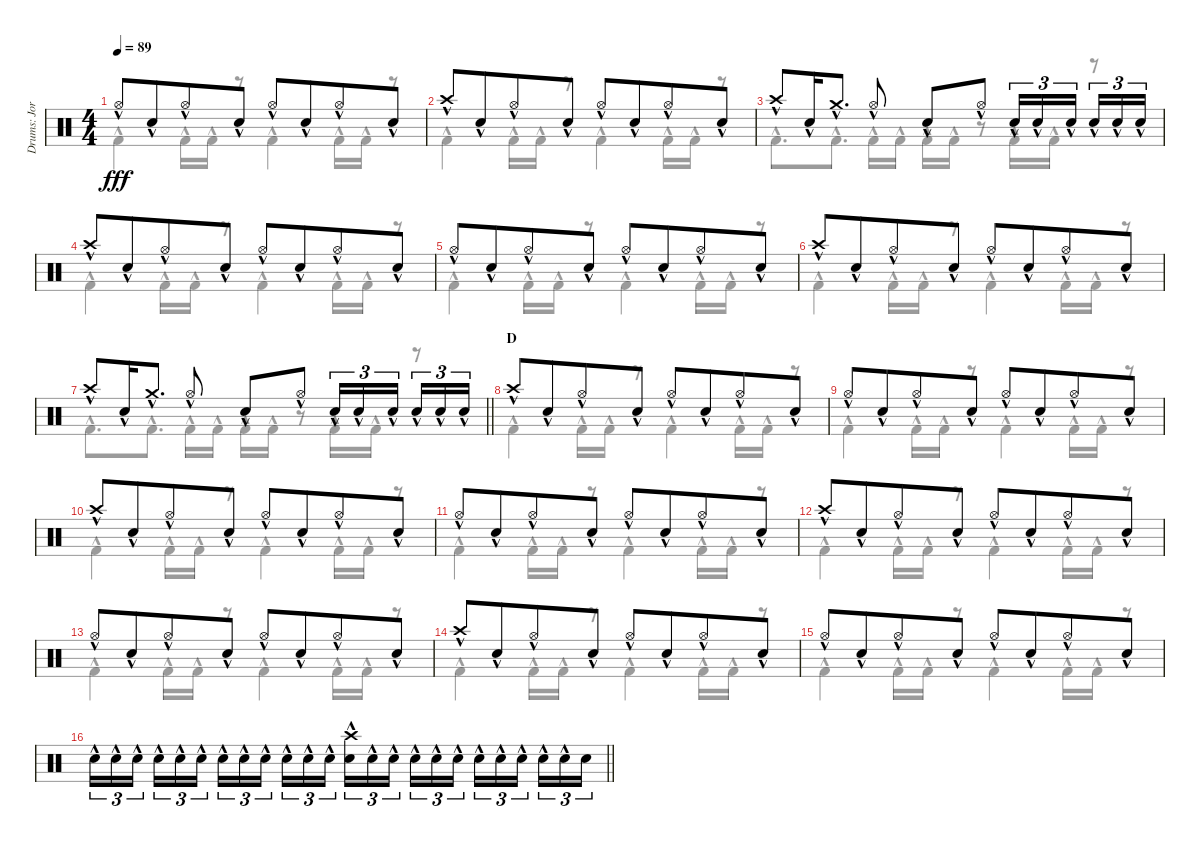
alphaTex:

\track ("Drums: Jorg" "Drums: Jor") {instrument percussion}
\staff {score}
\articulation defaults
\voice
\ts (4 4)
\tempo 89
\clef neutral
\ks c "Hi-Hat (open)"{hac}.8{dy fff} "Snare (hit) 2"{hac}.8{beam merge} "Hi-Hat (open)"{hac}.8 "Snare (hit) 2"{hac}.8 "Hi-Hat (open)"{hac}.8 "Snare (hit) 2"{hac}.8{beam merge} "Hi-Hat (open)"{hac}.8 "Snare (hit) 2"{hac}.8
|
"Crash high (hit)"{hac}.8 "Snare (hit) 2"{hac}.8{beam merge} "Hi-Hat (open)"{hac}.8 "Snare (hit) 2"{hac}.8 "Hi-Hat (open)"{hac}.8 "Snare (hit) 2"{hac}.8{beam merge} "Hi-Hat (open)"{hac}.8 "Snare (hit) 2"{hac}.8 |
"Crash high (hit)"{hac}.8 "Snare (hit) 2"{hac}.16{beam merge} "Crash medium (hit)"{hac}.8{d} "Hi-Hat (open)"{hac}.8 "Snare (hit) 2"{hac}.8{beam merge} "Hi-Hat (open)"{hac}.8 "Snare (hit) 2"{hac}.16{tu (3 2)} "Snare (hit) 2"{hac}.16{tu (3 2)} "Snare (hit) 2"{hac}.16{tu (3 2) beam splitsecondary} "Snare (hit) 2"{hac}.16{tu (3 2)} "Snare (hit) 2"{hac}.16{tu (3 2)} "Snare (hit) 2"{hac}.16{tu (3 2)} |
"Crash high (hit)"{hac}.8 "Snare (hit) 2"{hac}.8{beam merge} "Hi-Hat (open)"{hac}.8 "Snare (hit) 2"{hac}.8 "Hi-Hat (open)"{hac}.8 "Snare (hit) 2"{hac}.8{beam merge} "Hi-Hat (open)"{hac}.8 "Snare (hit) 2"{hac}.8 |
"Hi-Hat (open)"{hac}.8 "Snare (hit) 2"{hac}.8{beam merge} "Hi-Hat (open)"{hac}.8 "Snare (hit) 2"{hac}.8 "Hi-Hat (open)"{hac}.8 "Snare (hit) 2"{hac}.8{beam merge} "Hi-Hat (open)"{hac}.8 "Snare (hit) 2"{hac}.8 |
"Crash high (hit)"{hac}.8 "Snare (hit) 2"{hac}.8{beam merge} "Hi-Hat (open)"{hac}.8 "Snare (hit) 2"{hac}.8 "Hi-Hat (open)"{hac}.8 "Snare (hit) 2"{hac}.8{beam merge} "Hi-Hat (open)"{hac}.8 "Snare (hit) 2"{hac}.8 |
\barLineRight lightlight "Crash high (hit)"{hac}.8 "Snare (hit) 2"{hac}.16{beam merge} "Crash medium (hit)"{hac}.8{d} "Hi-Hat (open)"{hac}.8 "Snare (hit) 2"{hac}.8{beam merge} "Hi-Hat (open)"{hac}.8 "Snare (hit) 2"{hac}.16{tu (3 2)} "Snare (hit) 2"{hac}.16{tu (3 2)} "Snare (hit) 2"{hac}.16{tu (3 2) beam splitsecondary} "Snare (hit) 2"{hac}.16{tu (3 2)} "Snare (hit) 2"{hac}.16{tu (3 2)} "Snare (hit) 2"{hac}.16{tu (3 2)}
|
\section ("" "D")
"Crash high (hit)"{hac}.8 "Snare (hit) 2"{hac}.8{beam merge} "Hi-Hat (open)"{hac}.8 "Snare (hit) 2"{hac}.8 "Hi-Hat (open)"{hac}.8 "Snare (hit) 2"{hac}.8{beam merge} "Hi-Hat (open)"{hac}.8 "Snare (hit) 2"{hac}.8 |
"Hi-Hat (open)"{hac}.8 "Snare (hit) 2"{hac}.8{beam merge} "Hi-Hat (open)"{hac}.8 "Snare (hit) 2"{hac}.8 "Hi-Hat (open)"{hac}.8 "Snare (hit) 2"{hac}.8{beam merge} "Hi-Hat (open)"{hac}.8 "Snare (hit) 2"{hac}.8 |
"Crash high (hit)"{hac}.8 "Snare (hit) 2"{hac}.8{beam merge} "Hi-Hat (open)"{hac}.8 "Snare (hit) 2"{hac}.8 "Hi-Hat (open)"{hac}.8 "Snare (hit) 2"{hac}.8{beam merge} "Hi-Hat (open)"{hac}.8 "Snare (hit) 2"{hac}.8 |
"Hi-Hat (open)"{hac}.8 "Snare (hit) 2"{hac}.8{beam merge} "Hi-Hat (open)"{hac}.8 "Snare (hit) 2"{hac}.8 "Hi-Hat (open)"{hac}.8 "Snare (hit) 2"{hac}.8{beam merge} "Hi-Hat (open)"{hac}.8 "Snare (hit) 2"{hac}.8 |
"Crash high (hit)"{hac}.8 "Snare (hit) 2"{hac}.8{beam merge} "Hi-Hat (open)"{hac}.8 "Snare (hit) 2"{hac}.8 "Hi-Hat (open)"{hac}.8 "Snare (hit) 2"{hac}.8{beam merge} "Hi-Hat (open)"{hac}.8 "Snare (hit) 2"{hac}.8 |
"Hi-Hat (open)"{hac}.8 "Snare (hit) 2"{hac}.8{beam merge} "Hi-Hat (open)"{hac}.8 "Snare (hit) 2"{hac}.8 "Hi-Hat (open)"{hac}.8 "Snare (hit) 2"{hac}.8{beam merge} "Hi-Hat (open)"{hac}.8 "Snare (hit) 2"{hac}.8 |
"Crash high (hit)"{hac}.8 "Snare (hit) 2"{hac}.8{beam merge} "Hi-Hat (open)"{hac}.8 "Snare (hit) 2"{hac}.8 "Hi-Hat (open)"{hac}.8 "Snare (hit) 2"{hac}.8{beam merge} "Hi-Hat (open)"{hac}.8 "Snare (hit) 2"{hac}.8 |
"Hi-Hat (open)"{hac}.8 "Snare (hit) 2"{hac}.8{beam merge} "Hi-Hat (open)"{hac}.8 "Snare (hit) 2"{hac}.8 "Hi-Hat (open)"{hac}.8 "Snare (hit) 2"{hac}.8{beam merge} "Hi-Hat (open)"{hac}.8 "Snare (hit) 2"{hac}.8 |
\barLineRight lightlight "Electric Snare (hit)"{hac}.16{tu (3 2)} "Electric Snare (hit)"{hac}.16{tu (3 2)} "Electric Snare (hit)"{hac}.16{tu (3 2) beam splitsecondary} "Electric Snare (hit)"{hac}.16{tu (3 2)} "Electric Snare (hit)"{hac}.16{tu (3 2)} "Electric Snare (hit)"{hac}.16{tu (3 2)} "Electric Snare (hit)"{hac}.16{tu (3 2)} "Electric Snare (hit)"{hac}.16{tu (3 2)} "Electric Snare (hit)"{hac}.16{tu (3 2) beam splitsecondary} "Electric Snare (hit)"{hac}.16{tu (3 2)} "Electric Snare (hit)"{hac}.16{tu (3 2)} "Electric Snare (hit)"{hac}.16{tu (3 2)}
("Crash high (hit)"{hac} "Snare (hit) 2"{hac}).16{tu (3 2)} "Electric Snare (hit)"{hac}.16{tu (3 2)} "Electric Snare (hit)"{hac}.16{tu (3 2) beam splitsecondary} "Electric Snare (hit)"{hac}.16{tu (3 2)} "Electric Snare (hit)"{hac}.16{tu (3 2)} "Electric Snare (hit)"{hac}.16{tu (3 2)} "Electric Snare (hit)"{hac}.16{tu (3 2)} "Electric Snare (hit)"{hac}.16{tu (3 2)} "Electric Snare (hit)"{hac}.16{tu (3 2) beam splitsecondary} "Electric Snare (hit)"{hac}.16{tu (3 2)} "Electric Snare (hit)"{hac}.16{tu (3 2)} "Electric Snare (hit)".16{tu (3 2)}
\voice
\clef neutral
\ottava regular
\simile none
\ks c "Kick (hit) 2"{hac}.4{dy fff} "Kick (hit) 2"{hac}.16 "Kick (hit) 2"{hac}.16
r.8 "Kick (hit) 2"{hac}.4 "Kick (hit) 2"{hac}.16 "Kick (hit) 2"{hac}.16 r.8 |
"Kick (hit) 2"{hac}.4 "Kick (hit) 2"{hac}.16 "Kick (hit) 2"{hac}.16 r.8 "Kick (hit) 2"{hac}.4 "Kick (hit) 2"{hac}.16 "Kick (hit) 2"{hac}.16 r.8 |
"Kick (hit) 2"{hac}.8{d} "Kick (hit) 2"{hac}.8{d} "Kick (hit) 2"{hac}.16 "Kick (hit) 2"{hac}.16 "Kick (hit) 2"{hac}.16 "Kick (hit) 2"{hac}.16 r.8 "Kick (hit) 2"{hac}.16 "Kick (hit) 2"{hac}.16 r.8 |
"Kick (hit) 2"{hac}.4 "Kick (hit) 2"{hac}.16 "Kick (hit) 2"{hac}.16 r.8 "Kick (hit) 2"{hac}.4 "Kick (hit) 2"{hac}.16 "Kick (hit) 2"{hac}.16 r.8 |
"Kick (hit) 2"{hac}.4 "Kick (hit) 2"{hac}.16 "Kick (hit) 2"{hac}.16 r.8 "Kick (hit) 2"{hac}.4 "Kick (hit) 2"{hac}.16 "Kick (hit) 2"{hac}.16 r.8 |
"Kick (hit) 2"{hac}.4 "Kick (hit) 2"{hac}.16 "Kick (hit) 2"{hac}.16 r.8 "Kick (hit) 2"{hac}.4 "Kick (hit) 2"{hac}.16 "Kick (hit) 2"{hac}.16 r.8 |
\barLineRight lightlight "Kick (hit) 2"{hac}.8{d} "Kick (hit) 2"{hac}.8{d} "Kick (hit) 2"{hac}.16 "Kick (hit) 2"{hac}.16 "Kick (hit) 2"{hac}.16 "Kick (hit) 2"{hac}.16
r.8 "Kick (hit) 2"{hac}.16 "Kick (hit) 2"{hac}.16 r.8 |
"Kick (hit) 2"{hac}.4 "Kick (hit) 2"{hac}.16 "Kick (hit) 2"{hac}.16 r.8 "Kick (hit) 2"{hac}.4 "Kick (hit) 2"{hac}.16 "Kick (hit) 2"{hac}.16 r.8 |
"Kick (hit) 2"{hac}.4 "Kick (hit) 2"{hac}.16 "Kick (hit) 2"{hac}.16 r.8 "Kick (hit) 2"{hac}.4 "Kick (hit) 2"{hac}.16 "Kick (hit) 2"{hac}.16 r.8 |
"Kick (hit) 2"{hac}.4 "Kick (hit) 2"{hac}.16 "Kick (hit) 2"{hac}.16 r.8 "Kick (hit) 2"{hac}.4 "Kick (hit) 2"{hac}.16 "Kick (hit) 2"{hac}.16 r.8 |
"Kick (hit) 2"{hac}.4 "Kick (hit) 2"{hac}.16 "Kick (hit) 2"{hac}.16 r.8 "Kick (hit) 2"{hac}.4 "Kick (hit) 2"{hac}.16 "Kick (hit) 2"{hac}.16 r.8 |
"Kick (hit) 2"{hac}.4 "Kick (hit) 2"{hac}.16 "Kick (hit) 2"{hac}.16 r.8 "Kick (hit) 2"{hac}.4 "Kick (hit) 2"{hac}.16 "Kick (hit) 2"{hac}.16 r.8 |
"Kick (hit) 2"{hac}.4 "Kick (hit) 2"{hac}.16 "Kick (hit) 2"{hac}.16 r.8 "Kick (hit) 2"{hac}.4 "Kick (hit) 2"{hac}.16 "Kick (hit) 2"{hac}.16 r.8 |
"Kick (hit) 2"{hac}.4 "Kick (hit) 2"{hac}.16 "Kick (hit) 2"{hac}.16 r.8 "Kick (hit) 2"{hac}.4 "Kick (hit) 2"{hac}.16 "Kick (hit) 2"{hac}.16 r.8 |
"Kick (hit) 2"{hac}.4 "Kick (hit) 2"{hac}.16 "Kick (hit) 2"{hac}.16 r.8 "Kick (hit) 2"{hac}.4 "Kick (hit) 2"{hac}.16 "Kick (hit) 2"{hac}.16 r.8 |
\barLineRight lightlight
